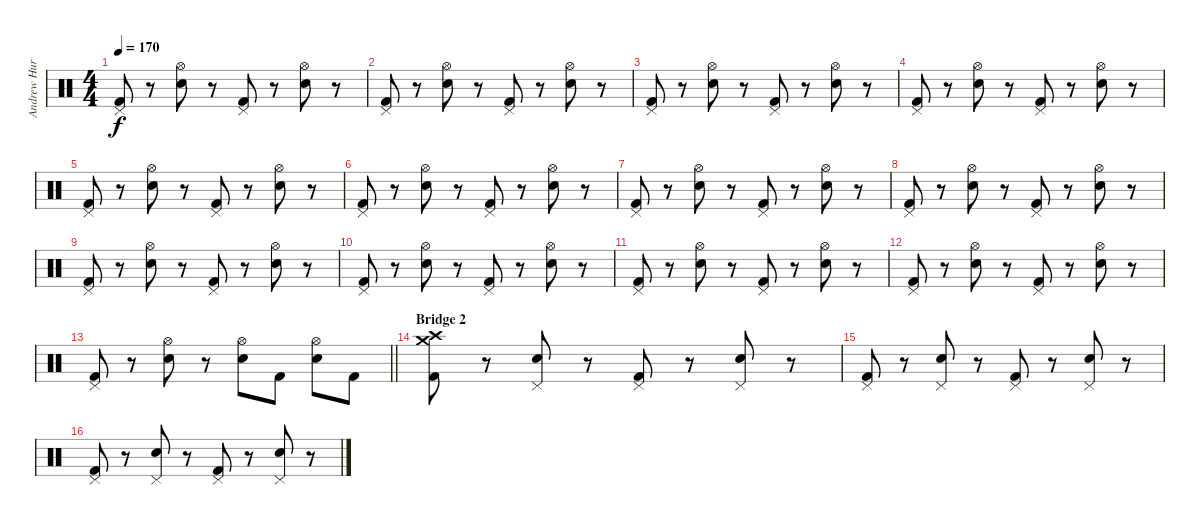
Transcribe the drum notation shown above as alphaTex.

\track ("Andrew Hurley (Drums)" "Andrew Hur") {instrument percussion}
\staff {score}
\articulation defaults
\ts (4 4)
\tempo 170
\clef neutral
\ks c
("Pedal Hi-Hat (hit)" "Kick (hit) 2").8{dy f} r.8 ("Hi-Hat (open)" "Electric Snare (hit)").8 r.8 ("Pedal Hi-Hat (hit)" "Kick (hit) 2").8 r.8 ("Hi-Hat (open)" "Electric Snare (hit)").8 r.8 |
("Pedal Hi-Hat (hit)" "Kick (hit) 2").8 r.8 ("Hi-Hat (open)" "Electric Snare (hit)").8 r.8 ("Pedal Hi-Hat (hit)" "Kick (hit) 2").8 r.8 ("Hi-Hat (open)" "Electric Snare (hit)").8 r.8 |
("Pedal Hi-Hat (hit)" "Kick (hit) 2").8 r.8 ("Hi-Hat (open)" "Electric Snare (hit)").8 r.8 ("Pedal Hi-Hat (hit)" "Kick (hit) 2").8 r.8 ("Hi-Hat (open)" "Electric Snare (hit)").8 r.8 |
("Pedal Hi-Hat (hit)" "Kick (hit) 2").8 r.8 ("Hi-Hat (open)" "Electric Snare (hit)").8 r.8 ("Pedal Hi-Hat (hit)" "Kick (hit) 2").8 r.8 ("Hi-Hat (open)" "Electric Snare (hit)").8 r.8 |
("Pedal Hi-Hat (hit)" "Kick (hit) 2").8 r.8 ("Hi-Hat (open)" "Electric Snare (hit)").8 r.8 ("Pedal Hi-Hat (hit)" "Kick (hit) 2").8 r.8 ("Hi-Hat (open)" "Electric Snare (hit)").8 r.8 |
("Pedal Hi-Hat (hit)" "Kick (hit) 2").8 r.8 ("Hi-Hat (open)" "Electric Snare (hit)").8 r.8 ("Pedal Hi-Hat (hit)" "Kick (hit) 2").8 r.8 ("Hi-Hat (open)" "Electric Snare (hit)").8 r.8 |
("Pedal Hi-Hat (hit)" "Kick (hit) 2").8 r.8 ("Hi-Hat (open)" "Electric Snare (hit)").8 r.8 ("Pedal Hi-Hat (hit)" "Kick (hit) 2").8 r.8 ("Hi-Hat (open)" "Electric Snare (hit)").8 r.8 |
("Pedal Hi-Hat (hit)" "Kick (hit) 2").8 r.8 ("Hi-Hat (open)" "Electric Snare (hit)").8 r.8 ("Pedal Hi-Hat (hit)" "Kick (hit) 2").8 r.8 ("Hi-Hat (open)" "Electric Snare (hit)").8 r.8 |
("Pedal Hi-Hat (hit)" "Kick (hit) 2").8 r.8 ("Hi-Hat (open)" "Electric Snare (hit)").8 r.8 ("Pedal Hi-Hat (hit)" "Kick (hit) 2").8 r.8 ("Hi-Hat (open)" "Electric Snare (hit)").8 r.8 |
("Pedal Hi-Hat (hit)" "Kick (hit) 2").8 r.8 ("Hi-Hat (open)" "Electric Snare (hit)").8 r.8 ("Pedal Hi-Hat (hit)" "Kick (hit) 2").8 r.8 ("Hi-Hat (open)" "Electric Snare (hit)").8 r.8 |
("Pedal Hi-Hat (hit)" "Kick (hit) 2").8 r.8 ("Hi-Hat (open)" "Electric Snare (hit)").8 r.8 ("Pedal Hi-Hat (hit)" "Kick (hit) 2").8 r.8 ("Hi-Hat (open)" "Electric Snare (hit)").8 r.8 |
("Pedal Hi-Hat (hit)" "Kick (hit) 2").8 r.8 ("Hi-Hat (open)" "Electric Snare (hit)").8 r.8 ("Pedal Hi-Hat (hit)" "Kick (hit) 2").8 r.8 ("Hi-Hat (open)" "Electric Snare (hit)").8 r.8 |
\barLineRight lightlight
("Pedal Hi-Hat (hit)" "Kick (hit) 2").8 r.8 ("Hi-Hat (open)" "Electric Snare (hit)").8 r.8 ("Hi-Hat (open)" "Electric Snare (hit)").8 "Kick (hit) 2".8 ("Hi-Hat (open)" "Electric Snare (hit)").8 "Kick (hit) 2".8 |
\section ("" "Bridge 2")
("Crash high (hit)" "Crash medium (hit)" "Kick (hit) 2").8 r.8 ("Pedal Hi-Hat (hit)" "Electric Snare (hit)").8 r.8 ("Pedal Hi-Hat (hit)" "Kick (hit) 2").8 r.8 ("Pedal Hi-Hat (hit)" "Electric Snare (hit)").8 r.8 |
("Pedal Hi-Hat (hit)" "Kick (hit) 2").8 r.8 ("Pedal Hi-Hat (hit)" "Electric Snare (hit)").8 r.8 ("Pedal Hi-Hat (hit)" "Kick (hit) 2").8 r.8 ("Pedal Hi-Hat (hit)" "Electric Snare (hit)").8 r.8 |
("Pedal Hi-Hat (hit)" "Kick (hit) 2").8 r.8 ("Pedal Hi-Hat (hit)" "Electric Snare (hit)").8 r.8 ("Pedal Hi-Hat (hit)" "Kick (hit) 2").8 r.8 ("Pedal Hi-Hat (hit)" "Electric Snare (hit)").8 r.8
